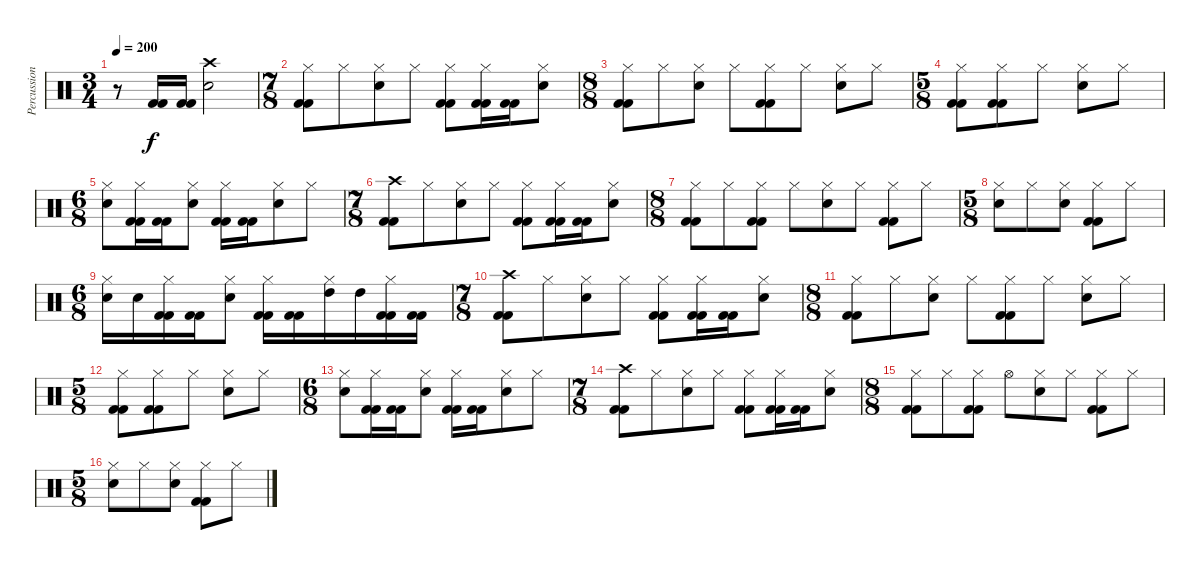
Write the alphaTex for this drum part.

\track ("Percussions" "Percussion") {instrument percussion}
\staff {score}
\articulation defaults
\ts (3 4)
\tempo 200
\clef neutral
\ks c
r.8{dy f} ("Kick (hit) 2" "Kick (hit) 2").16 ("Kick (hit) 2" "Kick (hit) 2").16 ("Electric Snare (hit)" "Crash high (hit)").2 |
\ts (7 8)
("Kick (hit) 2" "Kick (hit) 2" "Hi-Hat (closed)").8 "Hi-Hat (closed)".8 ("Electric Snare (hit)" "Hi-Hat (closed)").8 "Hi-Hat (closed)".8 ("Kick (hit) 2" "Kick (hit) 2" "Hi-Hat (closed)").8 ("Kick (hit) 2" "Kick (hit) 2" "Hi-Hat (closed)").16 ("Kick (hit) 2" "Kick (hit) 2").16 ("Electric Snare (hit)" "Hi-Hat (closed)").8 |
\ts (8 8)
("Kick (hit) 2" "Kick (hit) 2" "Hi-Hat (closed)").8 "Hi-Hat (closed)".8 ("Electric Snare (hit)" "Hi-Hat (closed)").8 "Hi-Hat (closed)".8 ("Kick (hit) 2" "Kick (hit) 2" "Hi-Hat (closed)").8 "Hi-Hat (closed)".8 ("Electric Snare (hit)" "Hi-Hat (closed)").8 "Hi-Hat (closed)".8 |
\ts (5 8)
("Kick (hit) 2" "Kick (hit) 2" "Hi-Hat (closed)").8 ("Kick (hit) 2" "Kick (hit) 2" "Hi-Hat (closed)").8 "Hi-Hat (closed)".8 ("Electric Snare (hit)" "Hi-Hat (closed)").8 "Hi-Hat (closed)".8 |
\ts (6 8)
("Electric Snare (hit)" "Hi-Hat (closed)").8 ("Kick (hit) 2" "Kick (hit) 2" "Hi-Hat (closed)").16 ("Kick (hit) 2" "Kick (hit) 2").16 ("Electric Snare (hit)" "Hi-Hat (closed)").8 ("Kick (hit) 2" "Kick (hit) 2" "Hi-Hat (closed)").16 ("Kick (hit) 2" "Kick (hit) 2").16 ("Electric Snare (hit)" "Hi-Hat (closed)").8 "Hi-Hat (closed)".8 |
\ts (7 8)
("Kick (hit) 2" "Kick (hit) 2" "Crash high (hit)").8 "Hi-Hat (closed)".8 ("Electric Snare (hit)" "Hi-Hat (closed)").8 "Hi-Hat (closed)".8 ("Kick (hit) 2" "Kick (hit) 2" "Hi-Hat (closed)").8 ("Kick (hit) 2" "Kick (hit) 2" "Hi-Hat (closed)").16 ("Kick (hit) 2" "Kick (hit) 2").16 ("Electric Snare (hit)" "Hi-Hat (closed)").8 |
\ts (8 8)
("Kick (hit) 2" "Kick (hit) 2" "Hi-Hat (closed)").8 "Hi-Hat (closed)".8 ("Kick (hit) 2" "Kick (hit) 2" "Hi-Hat (closed)").8 "Hi-Hat (closed)".8 ("Electric Snare (hit)" "Hi-Hat (closed)").8 "Hi-Hat (closed)".8 ("Kick (hit) 2" "Kick (hit) 2" "Hi-Hat (closed)").8 "Hi-Hat (closed)".8 |
\ts (5 8)
("Electric Snare (hit)" "Hi-Hat (closed)").8 "Hi-Hat (closed)".8 ("Electric Snare (hit)" "Hi-Hat (closed)").8 ("Kick (hit) 2" "Kick (hit) 2" "Hi-Hat (closed)").8 "Hi-Hat (closed)".8 |
\ts (6 8)
("Electric Snare (hit)" "Hi-Hat (closed)").16 "Electric Snare (hit)".16 ("Kick (hit) 2" "Kick (hit) 2" "Hi-Hat (closed)").16 ("Kick (hit) 2" "Kick (hit) 2").16 ("Electric Snare (hit)" "Hi-Hat (closed)").8 ("Kick (hit) 2" "Kick (hit) 2" "Hi-Hat (closed)").16 ("Kick (hit) 2" "Kick (hit) 2").16 ("High Tom (hit)" "Hi-Hat (closed)").16 "High Tom (hit)".16 ("Kick (hit) 2" "Kick (hit) 2" "Hi-Hat (closed)").16 ("Kick (hit) 2" "Kick (hit) 2").16 |
\ts (7 8)
("Kick (hit) 2" "Kick (hit) 2" "Crash high (hit)").8 "Hi-Hat (closed)".8 ("Electric Snare (hit)" "Hi-Hat (closed)").8 "Hi-Hat (closed)".8 ("Kick (hit) 2" "Kick (hit) 2" "Hi-Hat (closed)").8 ("Kick (hit) 2" "Kick (hit) 2" "Hi-Hat (closed)").16 ("Kick (hit) 2" "Kick (hit) 2").16 ("Electric Snare (hit)" "Hi-Hat (closed)").8 |
\ts (8 8)
("Kick (hit) 2" "Kick (hit) 2" "Hi-Hat (closed)").8 "Hi-Hat (closed)".8 ("Electric Snare (hit)" "Hi-Hat (closed)").8 "Hi-Hat (closed)".8 ("Kick (hit) 2" "Kick (hit) 2" "Hi-Hat (closed)").8 "Hi-Hat (closed)".8 ("Electric Snare (hit)" "Hi-Hat (closed)").8 "Hi-Hat (closed)".8 |
\ts (5 8)
("Kick (hit) 2" "Kick (hit) 2" "Hi-Hat (closed)").8 ("Kick (hit) 2" "Kick (hit) 2" "Hi-Hat (closed)").8 "Hi-Hat (closed)".8 ("Electric Snare (hit)" "Hi-Hat (closed)").8 "Hi-Hat (closed)".8 |
\ts (6 8)
("Electric Snare (hit)" "Hi-Hat (closed)").8 ("Kick (hit) 2" "Kick (hit) 2" "Hi-Hat (closed)").16 ("Kick (hit) 2" "Kick (hit) 2").16 ("Electric Snare (hit)" "Hi-Hat (closed)").8 ("Kick (hit) 2" "Kick (hit) 2" "Hi-Hat (closed)").16 ("Kick (hit) 2" "Kick (hit) 2").16 ("Electric Snare (hit)" "Hi-Hat (closed)").8 "Hi-Hat (closed)".8 |
\ts (7 8)
("Kick (hit) 2" "Kick (hit) 2" "Crash high (hit)").8 "Hi-Hat (closed)".8 ("Electric Snare (hit)" "Hi-Hat (closed)").8 "Hi-Hat (closed)".8 ("Kick (hit) 2" "Kick (hit) 2" "Hi-Hat (closed)").8 ("Kick (hit) 2" "Kick (hit) 2" "Hi-Hat (closed)").16 ("Kick (hit) 2" "Kick (hit) 2").16 ("Electric Snare (hit)" "Hi-Hat (closed)").8 |
\ts (8 8)
("Kick (hit) 2" "Kick (hit) 2" "Hi-Hat (closed)").8 "Hi-Hat (closed)".8 ("Kick (hit) 2" "Kick (hit) 2" "Hi-Hat (closed)").8 "Hi-Hat (open)".8 ("Electric Snare (hit)" "Hi-Hat (closed)").8 "Hi-Hat (closed)".8 ("Kick (hit) 2" "Kick (hit) 2" "Hi-Hat (closed)").8 "Hi-Hat (closed)".8 |
\ts (5 8)
("Electric Snare (hit)" "Hi-Hat (closed)").8 "Hi-Hat (closed)".8 ("Electric Snare (hit)" "Hi-Hat (closed)").8 ("Kick (hit) 2" "Kick (hit) 2" "Hi-Hat (closed)").8 "Hi-Hat (closed)".8
